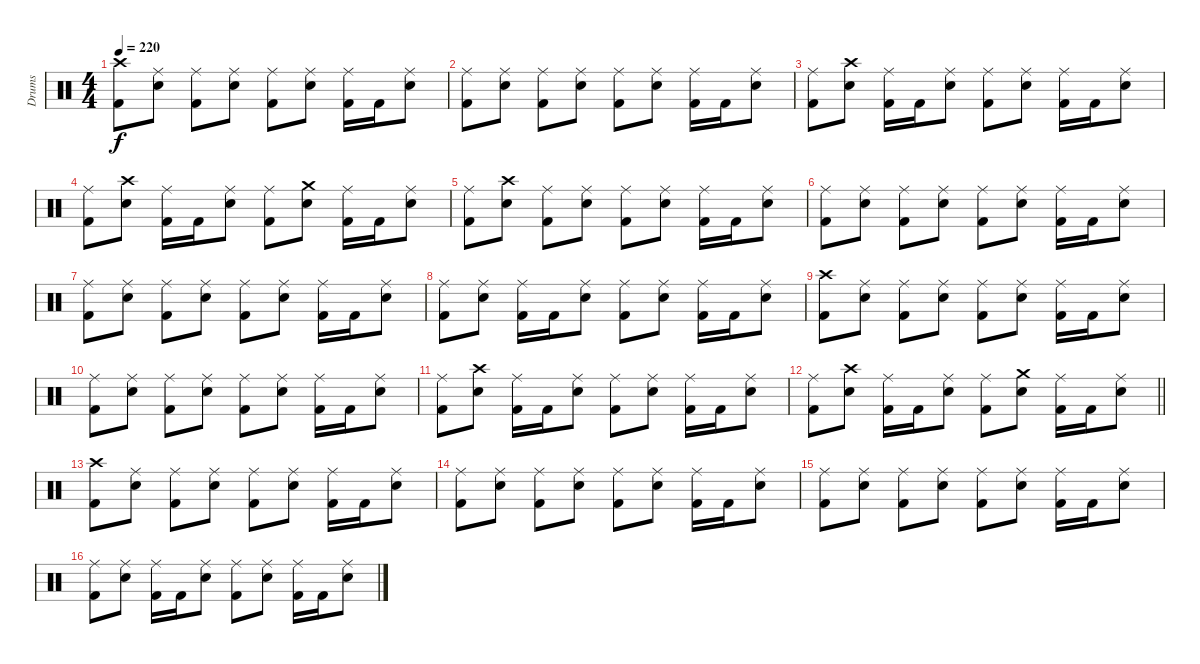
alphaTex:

\track ("Drums" "Drums") {instrument percussion}
\staff {score}
\articulation defaults
\ts (4 4)
\tempo 220
\clef neutral
\ks c
("Crash high (hit)" "Kick (hit) 2").8{dy f} ("Ride (middle)" "Snare (hit) 2").8 ("Ride (middle)" "Kick (hit) 2").8 ("Ride (middle)" "Snare (hit) 2").8 ("Ride (middle)" "Kick (hit) 2").8 ("Ride (middle)" "Snare (hit) 2").8 ("Ride (middle)" "Kick (hit) 2").16 "Kick (hit) 2".16 ("Ride (middle)" "Snare (hit) 2").8 |
("Ride (middle)" "Kick (hit) 2").8 ("Ride (middle)" "Snare (hit) 2").8 ("Ride (middle)" "Kick (hit) 2").8 ("Ride (middle)" "Snare (hit) 2").8 ("Ride (middle)" "Kick (hit) 2").8 ("Ride (middle)" "Snare (hit) 2").8 ("Ride (middle)" "Kick (hit) 2").16 "Kick (hit) 2".16 ("Ride (middle)" "Snare (hit) 2").8 |
("Ride (middle)" "Kick (hit) 2").8 ("Crash high (hit)" "Snare (hit) 2").8 ("Ride (middle)" "Kick (hit) 2").16 "Kick (hit) 2".16 ("Ride (middle)" "Snare (hit) 2").8 ("Ride (middle)" "Kick (hit) 2").8 ("Ride (middle)" "Snare (hit) 2").8 ("Ride (middle)" "Kick (hit) 2").16 "Kick (hit) 2".16 ("Ride (middle)" "Snare (hit) 2").8 |
("Ride (middle)" "Kick (hit) 2").8 ("Crash high (hit)" "Snare (hit) 2").8 ("Ride (middle)" "Kick (hit) 2").16 "Kick (hit) 2".16 ("Ride (middle)" "Snare (hit) 2").8 ("Ride (middle)" "Kick (hit) 2").8 ("Crash medium (hit)" "Snare (hit) 2").8 ("Ride (middle)" "Kick (hit) 2").16 "Kick (hit) 2".16 ("Ride (middle)" "Snare (hit) 2").8 |
("Ride (middle)" "Kick (hit) 2").8 ("Crash high (hit)" "Snare (hit) 2").8 ("Ride (middle)" "Kick (hit) 2").8 ("Ride (middle)" "Snare (hit) 2").8 ("Ride (middle)" "Kick (hit) 2").8 ("Ride (middle)" "Snare (hit) 2").8 ("Ride (middle)" "Kick (hit) 2").16 "Kick (hit) 2".16 ("Ride (middle)" "Snare (hit) 2").8 |
("Ride (middle)" "Kick (hit) 2").8 ("Ride (middle)" "Snare (hit) 2").8 ("Ride (middle)" "Kick (hit) 2").8 ("Ride (middle)" "Snare (hit) 2").8 ("Ride (middle)" "Kick (hit) 2").8 ("Ride (middle)" "Snare (hit) 2").8 ("Ride (middle)" "Kick (hit) 2").16 "Kick (hit) 2".16 ("Ride (middle)" "Snare (hit) 2").8 |
("Ride (middle)" "Kick (hit) 2").8 ("Ride (middle)" "Snare (hit) 2").8 ("Ride (middle)" "Kick (hit) 2").8 ("Ride (middle)" "Snare (hit) 2").8 ("Ride (middle)" "Kick (hit) 2").8 ("Ride (middle)" "Snare (hit) 2").8 ("Ride (middle)" "Kick (hit) 2").16 "Kick (hit) 2".16 ("Ride (middle)" "Snare (hit) 2").8 |
("Ride (middle)" "Kick (hit) 2").8 ("Ride (middle)" "Snare (hit) 2").8 ("Ride (middle)" "Kick (hit) 2").16 "Kick (hit) 2".16 ("Ride (middle)" "Snare (hit) 2").8 ("Ride (middle)" "Kick (hit) 2").8 ("Ride (middle)" "Snare (hit) 2").8 ("Ride (middle)" "Kick (hit) 2").16 "Kick (hit) 2".16 ("Ride (middle)" "Snare (hit) 2").8 |
("Crash high (hit)" "Kick (hit) 2").8 ("Ride (middle)" "Snare (hit) 2").8 ("Ride (middle)" "Kick (hit) 2").8 ("Ride (middle)" "Snare (hit) 2").8 ("Ride (middle)" "Kick (hit) 2").8 ("Ride (middle)" "Snare (hit) 2").8 ("Ride (middle)" "Kick (hit) 2").16 "Kick (hit) 2".16 ("Ride (middle)" "Snare (hit) 2").8 |
("Ride (middle)" "Kick (hit) 2").8 ("Ride (middle)" "Snare (hit) 2").8 ("Ride (middle)" "Kick (hit) 2").8 ("Ride (middle)" "Snare (hit) 2").8 ("Ride (middle)" "Kick (hit) 2").8 ("Ride (middle)" "Snare (hit) 2").8 ("Ride (middle)" "Kick (hit) 2").16 "Kick (hit) 2".16 ("Ride (middle)" "Snare (hit) 2").8 |
("Ride (middle)" "Kick (hit) 2").8 ("Crash high (hit)" "Snare (hit) 2").8 ("Ride (middle)" "Kick (hit) 2").16 "Kick (hit) 2".16 ("Ride (middle)" "Snare (hit) 2").8 ("Ride (middle)" "Kick (hit) 2").8 ("Ride (middle)" "Snare (hit) 2").8 ("Ride (middle)" "Kick (hit) 2").16 "Kick (hit) 2".16 ("Ride (middle)" "Snare (hit) 2").8 |
\barLineRight lightlight
("Ride (middle)" "Kick (hit) 2").8 ("Crash high (hit)" "Snare (hit) 2").8 ("Ride (middle)" "Kick (hit) 2").16 "Kick (hit) 2".16 ("Ride (middle)" "Snare (hit) 2").8 ("Ride (middle)" "Kick (hit) 2").8 ("Crash medium (hit)" "Snare (hit) 2").8 ("Ride (middle)" "Kick (hit) 2").16 "Kick (hit) 2".16 ("Ride (middle)" "Snare (hit) 2").8 |
("Crash high (hit)" "Kick (hit) 2").8 ("Ride (middle)" "Snare (hit) 2").8 ("Ride (middle)" "Kick (hit) 2").8 ("Ride (middle)" "Snare (hit) 2").8 ("Ride (middle)" "Kick (hit) 2").8 ("Ride (middle)" "Snare (hit) 2").8 ("Ride (middle)" "Kick (hit) 2").16 "Kick (hit) 2".16 ("Ride (middle)" "Snare (hit) 2").8 |
("Ride (middle)" "Kick (hit) 2").8 ("Ride (middle)" "Snare (hit) 2").8 ("Ride (middle)" "Kick (hit) 2").8 ("Ride (middle)" "Snare (hit) 2").8 ("Ride (middle)" "Kick (hit) 2").8 ("Ride (middle)" "Snare (hit) 2").8 ("Ride (middle)" "Kick (hit) 2").16 "Kick (hit) 2".16 ("Ride (middle)" "Snare (hit) 2").8 |
("Ride (middle)" "Kick (hit) 2").8 ("Ride (middle)" "Snare (hit) 2").8 ("Ride (middle)" "Kick (hit) 2").8 ("Ride (middle)" "Snare (hit) 2").8 ("Ride (middle)" "Kick (hit) 2").8 ("Ride (middle)" "Snare (hit) 2").8 ("Ride (middle)" "Kick (hit) 2").16 "Kick (hit) 2".16 ("Ride (middle)" "Snare (hit) 2").8 |
("Ride (middle)" "Kick (hit) 2").8 ("Ride (middle)" "Snare (hit) 2").8 ("Ride (middle)" "Kick (hit) 2").16 "Kick (hit) 2".16 ("Ride (middle)" "Snare (hit) 2").8 ("Ride (middle)" "Kick (hit) 2").8 ("Ride (middle)" "Snare (hit) 2").8 ("Ride (middle)" "Kick (hit) 2").16 "Kick (hit) 2".16 ("Ride (middle)" "Snare (hit) 2").8
